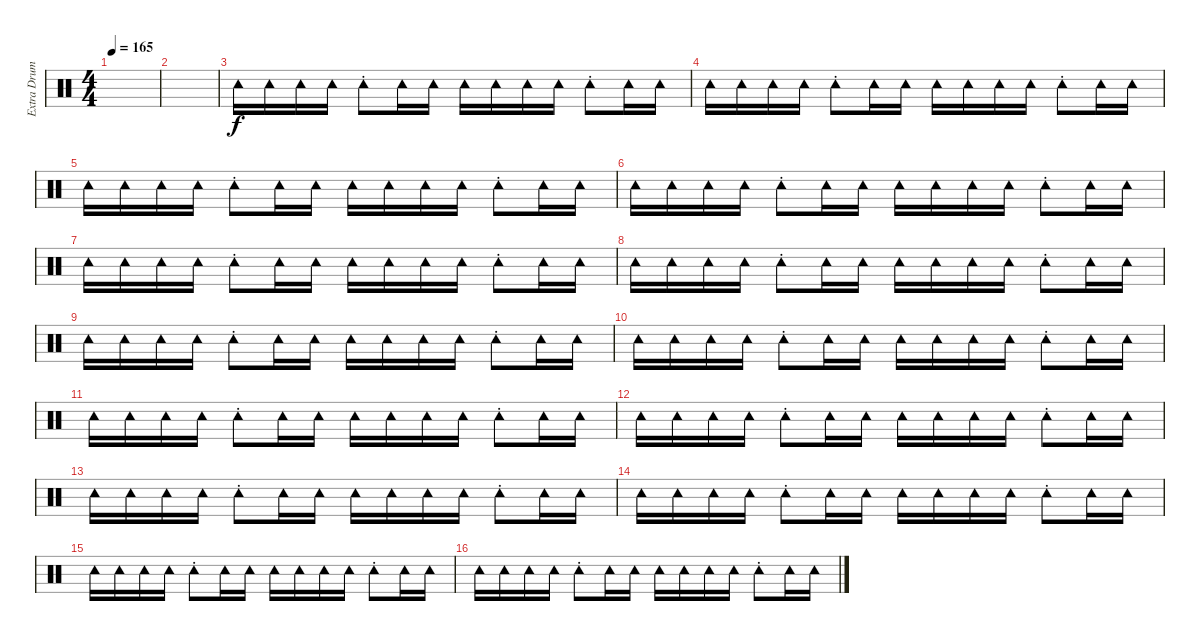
\track ("Extra Drum : Tainaka Risu - Chan" "Extra Drum") {instrument percussion}
\staff {score}
\articulation defaults
\ts (4 4)
\tempo 165
\clef neutral
\ks c
|
|
"Tambourine (hit)".16 "Tambourine (hit)".16 "Tambourine (hit)".16 "Tambourine (hit)".16 "Tambourine (hit)"{st}.8 "Tambourine (hit)".16 "Tambourine (hit)".16 "Tambourine (hit)".16 "Tambourine (hit)".16 "Tambourine (hit)".16 "Tambourine (hit)".16 "Tambourine (hit)"{st}.8 "Tambourine (hit)".16 "Tambourine (hit)".16 |
"Tambourine (hit)".16 "Tambourine (hit)".16 "Tambourine (hit)".16 "Tambourine (hit)".16 "Tambourine (hit)"{st}.8 "Tambourine (hit)".16 "Tambourine (hit)".16 "Tambourine (hit)".16 "Tambourine (hit)".16 "Tambourine (hit)".16 "Tambourine (hit)".16 "Tambourine (hit)"{st}.8 "Tambourine (hit)".16 "Tambourine (hit)".16 |
"Tambourine (hit)".16 "Tambourine (hit)".16 "Tambourine (hit)".16 "Tambourine (hit)".16 "Tambourine (hit)"{st}.8 "Tambourine (hit)".16 "Tambourine (hit)".16 "Tambourine (hit)".16 "Tambourine (hit)".16 "Tambourine (hit)".16 "Tambourine (hit)".16 "Tambourine (hit)"{st}.8 "Tambourine (hit)".16 "Tambourine (hit)".16 |
"Tambourine (hit)".16 "Tambourine (hit)".16 "Tambourine (hit)".16 "Tambourine (hit)".16 "Tambourine (hit)"{st}.8 "Tambourine (hit)".16 "Tambourine (hit)".16 "Tambourine (hit)".16 "Tambourine (hit)".16 "Tambourine (hit)".16 "Tambourine (hit)".16 "Tambourine (hit)"{st}.8 "Tambourine (hit)".16 "Tambourine (hit)".16 |
"Tambourine (hit)".16 "Tambourine (hit)".16 "Tambourine (hit)".16 "Tambourine (hit)".16 "Tambourine (hit)"{st}.8 "Tambourine (hit)".16 "Tambourine (hit)".16 "Tambourine (hit)".16 "Tambourine (hit)".16 "Tambourine (hit)".16 "Tambourine (hit)".16 "Tambourine (hit)"{st}.8 "Tambourine (hit)".16 "Tambourine (hit)".16 |
"Tambourine (hit)".16 "Tambourine (hit)".16 "Tambourine (hit)".16 "Tambourine (hit)".16 "Tambourine (hit)"{st}.8 "Tambourine (hit)".16 "Tambourine (hit)".16 "Tambourine (hit)".16 "Tambourine (hit)".16 "Tambourine (hit)".16 "Tambourine (hit)".16 "Tambourine (hit)"{st}.8 "Tambourine (hit)".16 "Tambourine (hit)".16 |
"Tambourine (hit)".16 "Tambourine (hit)".16 "Tambourine (hit)".16 "Tambourine (hit)".16 "Tambourine (hit)"{st}.8 "Tambourine (hit)".16 "Tambourine (hit)".16 "Tambourine (hit)".16 "Tambourine (hit)".16 "Tambourine (hit)".16 "Tambourine (hit)".16 "Tambourine (hit)"{st}.8 "Tambourine (hit)".16 "Tambourine (hit)".16 |
"Tambourine (hit)".16 "Tambourine (hit)".16 "Tambourine (hit)".16 "Tambourine (hit)".16 "Tambourine (hit)"{st}.8 "Tambourine (hit)".16 "Tambourine (hit)".16 "Tambourine (hit)".16 "Tambourine (hit)".16 "Tambourine (hit)".16 "Tambourine (hit)".16 "Tambourine (hit)"{st}.8 "Tambourine (hit)".16 "Tambourine (hit)".16 |
"Tambourine (hit)".16 "Tambourine (hit)".16 "Tambourine (hit)".16 "Tambourine (hit)".16 "Tambourine (hit)"{st}.8 "Tambourine (hit)".16 "Tambourine (hit)".16 "Tambourine (hit)".16 "Tambourine (hit)".16 "Tambourine (hit)".16 "Tambourine (hit)".16 "Tambourine (hit)"{st}.8 "Tambourine (hit)".16 "Tambourine (hit)".16 |
"Tambourine (hit)".16 "Tambourine (hit)".16 "Tambourine (hit)".16 "Tambourine (hit)".16 "Tambourine (hit)"{st}.8 "Tambourine (hit)".16 "Tambourine (hit)".16 "Tambourine (hit)".16 "Tambourine (hit)".16 "Tambourine (hit)".16 "Tambourine (hit)".16 "Tambourine (hit)"{st}.8 "Tambourine (hit)".16 "Tambourine (hit)".16 |
"Tambourine (hit)".16 "Tambourine (hit)".16 "Tambourine (hit)".16 "Tambourine (hit)".16 "Tambourine (hit)"{st}.8 "Tambourine (hit)".16 "Tambourine (hit)".16 "Tambourine (hit)".16 "Tambourine (hit)".16 "Tambourine (hit)".16 "Tambourine (hit)".16 "Tambourine (hit)"{st}.8 "Tambourine (hit)".16 "Tambourine (hit)".16 |
"Tambourine (hit)".16 "Tambourine (hit)".16 "Tambourine (hit)".16 "Tambourine (hit)".16 "Tambourine (hit)"{st}.8 "Tambourine (hit)".16 "Tambourine (hit)".16 "Tambourine (hit)".16 "Tambourine (hit)".16 "Tambourine (hit)".16 "Tambourine (hit)".16 "Tambourine (hit)"{st}.8 "Tambourine (hit)".16 "Tambourine (hit)".16 |
"Tambourine (hit)".16 "Tambourine (hit)".16 "Tambourine (hit)".16 "Tambourine (hit)".16 "Tambourine (hit)"{st}.8 "Tambourine (hit)".16 "Tambourine (hit)".16 "Tambourine (hit)".16 "Tambourine (hit)".16 "Tambourine (hit)".16 "Tambourine (hit)".16 "Tambourine (hit)"{st}.8 "Tambourine (hit)".16 "Tambourine (hit)".16 |
"Tambourine (hit)".16 "Tambourine (hit)".16 "Tambourine (hit)".16 "Tambourine (hit)".16 "Tambourine (hit)"{st}.8 "Tambourine (hit)".16 "Tambourine (hit)".16 "Tambourine (hit)".16 "Tambourine (hit)".16 "Tambourine (hit)".16 "Tambourine (hit)".16 "Tambourine (hit)"{st}.8 "Tambourine (hit)".16 "Tambourine (hit)".16
